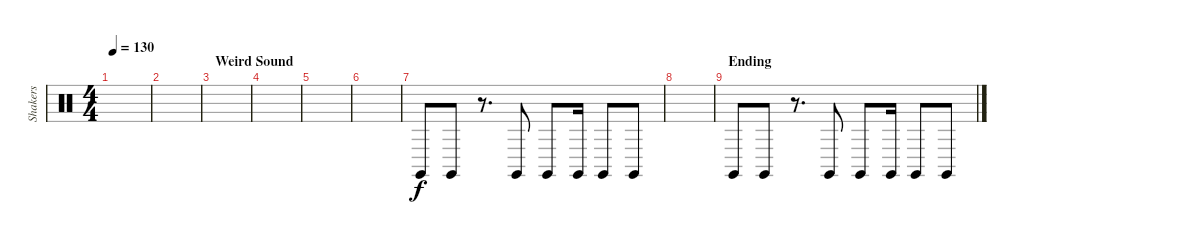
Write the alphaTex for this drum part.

\track ("Shakers" "Shakers") {instrument percussion}
\staff {score}
\articulation defaults
\ts (4 4)
\tempo 130
\clef neutral
\ks c
|
|
\section ("" "Weird Sound")
|
|
|
|
"Claves (hit)".8{dy f} "Claves (hit)".8 r.8{d} "Claves (hit)".8 "Claves (hit)".8 "Claves (hit)".16 "Claves (hit)".8 "Claves (hit)".8 |
|
\section ("" "Ending")
"Claves (hit)".8 "Claves (hit)".8 r.8{d} "Claves (hit)".8 "Claves (hit)".8 "Claves (hit)".16 "Claves (hit)".8 "Claves (hit)".8
